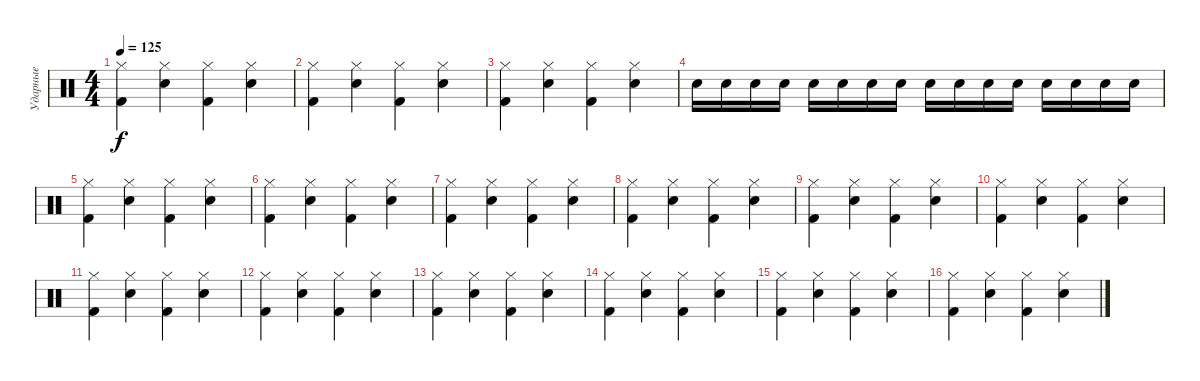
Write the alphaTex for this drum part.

\track ("Ударные" "Ударные") {instrument percussion}
\staff {score}
\articulation defaults
\ts (4 4)
\tempo 125
\clef neutral
\ks c
("Hi-Hat (closed)" "Kick (hit) 2").4{dy f} ("Hi-Hat (closed)" "Snare (hit) 2").4 ("Hi-Hat (closed)" "Kick (hit) 2").4 ("Hi-Hat (closed)" "Snare (hit) 2").4 |
("Hi-Hat (closed)" "Kick (hit) 2").4 ("Hi-Hat (closed)" "Snare (hit) 2").4 ("Hi-Hat (closed)" "Kick (hit) 2").4 ("Hi-Hat (closed)" "Snare (hit) 2").4 |
("Hi-Hat (closed)" "Kick (hit) 2").4 ("Hi-Hat (closed)" "Snare (hit) 2").4 ("Hi-Hat (closed)" "Kick (hit) 2").4 ("Hi-Hat (closed)" "Snare (hit) 2").4 |
"Snare (hit) 2".16 "Snare (hit) 2".16 "Snare (hit) 2".16 "Snare (hit) 2".16 "Snare (hit) 2".16 "Snare (hit) 2".16 "Snare (hit) 2".16 "Snare (hit) 2".16 "Snare (hit) 2".16 "Snare (hit) 2".16 "Snare (hit) 2".16 "Snare (hit) 2".16 "Snare (hit) 2".16 "Snare (hit) 2".16 "Snare (hit) 2".16 "Snare (hit) 2".16 |
("Hi-Hat (closed)" "Kick (hit) 2").4 ("Hi-Hat (closed)" "Snare (hit) 2").4 ("Hi-Hat (closed)" "Kick (hit) 2").4 ("Hi-Hat (closed)" "Snare (hit) 2").4 |
("Hi-Hat (closed)" "Kick (hit) 2").4 ("Hi-Hat (closed)" "Snare (hit) 2").4 ("Hi-Hat (closed)" "Kick (hit) 2").4 ("Hi-Hat (closed)" "Snare (hit) 2").4 |
("Hi-Hat (closed)" "Kick (hit) 2").4 ("Hi-Hat (closed)" "Snare (hit) 2").4 ("Hi-Hat (closed)" "Kick (hit) 2").4 ("Hi-Hat (closed)" "Snare (hit) 2").4 |
("Hi-Hat (closed)" "Kick (hit) 2").4 ("Hi-Hat (closed)" "Snare (hit) 2").4 ("Hi-Hat (closed)" "Kick (hit) 2").4 ("Hi-Hat (closed)" "Snare (hit) 2").4 |
("Hi-Hat (closed)" "Kick (hit) 2").4 ("Hi-Hat (closed)" "Snare (hit) 2").4 ("Hi-Hat (closed)" "Kick (hit) 2").4 ("Hi-Hat (closed)" "Snare (hit) 2").4 |
("Hi-Hat (closed)" "Kick (hit) 2").4 ("Hi-Hat (closed)" "Snare (hit) 2").4 ("Hi-Hat (closed)" "Kick (hit) 2").4 ("Hi-Hat (closed)" "Snare (hit) 2").4 |
("Hi-Hat (closed)" "Kick (hit) 2").4 ("Hi-Hat (closed)" "Snare (hit) 2").4 ("Hi-Hat (closed)" "Kick (hit) 2").4 ("Hi-Hat (closed)" "Snare (hit) 2").4 |
("Hi-Hat (closed)" "Kick (hit) 2").4 ("Hi-Hat (closed)" "Snare (hit) 2").4 ("Hi-Hat (closed)" "Kick (hit) 2").4 ("Hi-Hat (closed)" "Snare (hit) 2").4 |
("Hi-Hat (closed)" "Kick (hit) 2").4 ("Hi-Hat (closed)" "Snare (hit) 2").4 ("Hi-Hat (closed)" "Kick (hit) 2").4 ("Hi-Hat (closed)" "Snare (hit) 2").4 |
("Hi-Hat (closed)" "Kick (hit) 2").4 ("Hi-Hat (closed)" "Snare (hit) 2").4 ("Hi-Hat (closed)" "Kick (hit) 2").4 ("Hi-Hat (closed)" "Snare (hit) 2").4 |
("Hi-Hat (closed)" "Kick (hit) 2").4 ("Hi-Hat (closed)" "Snare (hit) 2").4 ("Hi-Hat (closed)" "Kick (hit) 2").4 ("Hi-Hat (closed)" "Snare (hit) 2").4 |
("Hi-Hat (closed)" "Kick (hit) 2").4 ("Hi-Hat (closed)" "Snare (hit) 2").4 ("Hi-Hat (closed)" "Kick (hit) 2").4 ("Hi-Hat (closed)" "Snare (hit) 2").4
